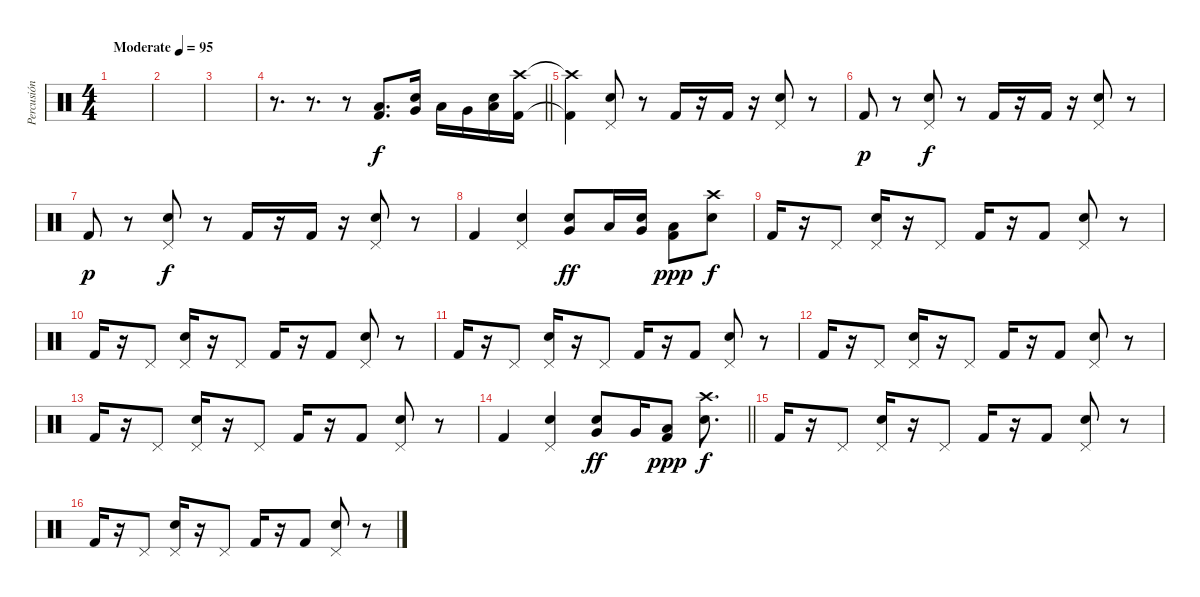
\track ("Percusión" "Percusión") {instrument percussion}
\staff {score}
\articulation defaults
\ts (4 4)
\tempo (95 "Moderate")
\clef neutral
\ks c
|
|
|
\barLineRight lightlight
r.8{d} r.8{d} r.8 ("Low Floor Tom (hit)" "Kick (hit) 2").8{d} ("Very Low Tom (hit)" "Snare (hit) 2").16 "Low Tom (hit)".16 "Very Low Tom (hit)".16 ("Snare (hit) 2" "Low Floor Tom (hit)").16 ("Crash high (hit)" "Kick (hit) 2").16{dy f} |
\section ("" "")
("Crash high (hit)"{t} "Kick (hit) 2"{t}).4 ("Snare (hit) 2" "Pedal Hi-Hat (hit)").8 r.8 "Kick (hit) 2".16 r.16 "Kick (hit) 2".16 r.16 ("Snare (hit) 2" "Pedal Hi-Hat (hit)").8 r.8 |
"Kick (hit) 2".8{dy p} r.8 ("Snare (hit) 2" "Pedal Hi-Hat (hit)").8{dy f} r.8 "Kick (hit) 2".16 r.16 "Kick (hit) 2".16 r.16 ("Snare (hit) 2" "Pedal Hi-Hat (hit)").8 r.8 |
"Kick (hit) 2".8{dy p} r.8 ("Snare (hit) 2" "Pedal Hi-Hat (hit)").8{dy f} r.8 "Kick (hit) 2".16 r.16 "Kick (hit) 2".16 r.16 ("Snare (hit) 2" "Pedal Hi-Hat (hit)").8 r.8 |
"Kick (hit) 2".4 ("Snare (hit) 2" "Pedal Hi-Hat (hit)").4 ("Very Low Tom (hit)" "Snare (hit) 2").8{dy ff} "Low Tom (hit)".16 ("Very Low Tom (hit)" "Snare (hit) 2").16 ("Low Tom (hit)" "Kick (hit) 2").8{dy ppp} ("Crash high (hit)" "Snare (hit) 2").8{dy f} |
"Kick (hit) 2".16 r.16 "Pedal Hi-Hat (hit)".8 ("Snare (hit) 2" "Pedal Hi-Hat (hit)").16 r.16 "Pedal Hi-Hat (hit)".8 "Kick (hit) 2".16 r.16 "Kick (hit) 2".8 ("Snare (hit) 2" "Pedal Hi-Hat (hit)").8 r.8 |
"Kick (hit) 2".16 r.16 "Pedal Hi-Hat (hit)".8 ("Snare (hit) 2" "Pedal Hi-Hat (hit)").16 r.16 "Pedal Hi-Hat (hit)".8 "Kick (hit) 2".16 r.16 "Kick (hit) 2".8 ("Snare (hit) 2" "Pedal Hi-Hat (hit)").8 r.8 |
"Kick (hit) 2".16 r.16 "Pedal Hi-Hat (hit)".8 ("Snare (hit) 2" "Pedal Hi-Hat (hit)").16 r.16 "Pedal Hi-Hat (hit)".8 "Kick (hit) 2".16 r.16 "Kick (hit) 2".8 ("Snare (hit) 2" "Pedal Hi-Hat (hit)").8 r.8 |
"Kick (hit) 2".16 r.16 "Pedal Hi-Hat (hit)".8 ("Snare (hit) 2" "Pedal Hi-Hat (hit)").16 r.16 "Pedal Hi-Hat (hit)".8 "Kick (hit) 2".16 r.16 "Kick (hit) 2".8 ("Snare (hit) 2" "Pedal Hi-Hat (hit)").8 r.8 |
"Kick (hit) 2".16 r.16 "Pedal Hi-Hat (hit)".8 ("Snare (hit) 2" "Pedal Hi-Hat (hit)").16 r.16 "Pedal Hi-Hat (hit)".8 "Kick (hit) 2".16 r.16 "Kick (hit) 2".8 ("Snare (hit) 2" "Pedal Hi-Hat (hit)").8 r.8 |
\barLineRight lightlight "Kick (hit) 2".4
("Snare (hit) 2" "Pedal Hi-Hat (hit)").4 ("Very Low Tom (hit)" "Snare (hit) 2").8{dy ff} "Very Low Tom (hit)".16 ("Low Tom (hit)" "Kick (hit) 2").8{dy ppp} ("Crash high (hit)" "Snare (hit) 2").8{d dy f} |
\section ("" "")
"Kick (hit) 2".16 r.16 "Pedal Hi-Hat (hit)".8 ("Snare (hit) 2" "Pedal Hi-Hat (hit)").16 r.16 "Pedal Hi-Hat (hit)".8 "Kick (hit) 2".16 r.16 "Kick (hit) 2".8 ("Snare (hit) 2" "Pedal Hi-Hat (hit)").8 r.8 |
"Kick (hit) 2".16 r.16 "Pedal Hi-Hat (hit)".8 ("Snare (hit) 2" "Pedal Hi-Hat (hit)").16 r.16 "Pedal Hi-Hat (hit)".8 "Kick (hit) 2".16 r.16 "Kick (hit) 2".8 ("Snare (hit) 2" "Pedal Hi-Hat (hit)").8 r.8
